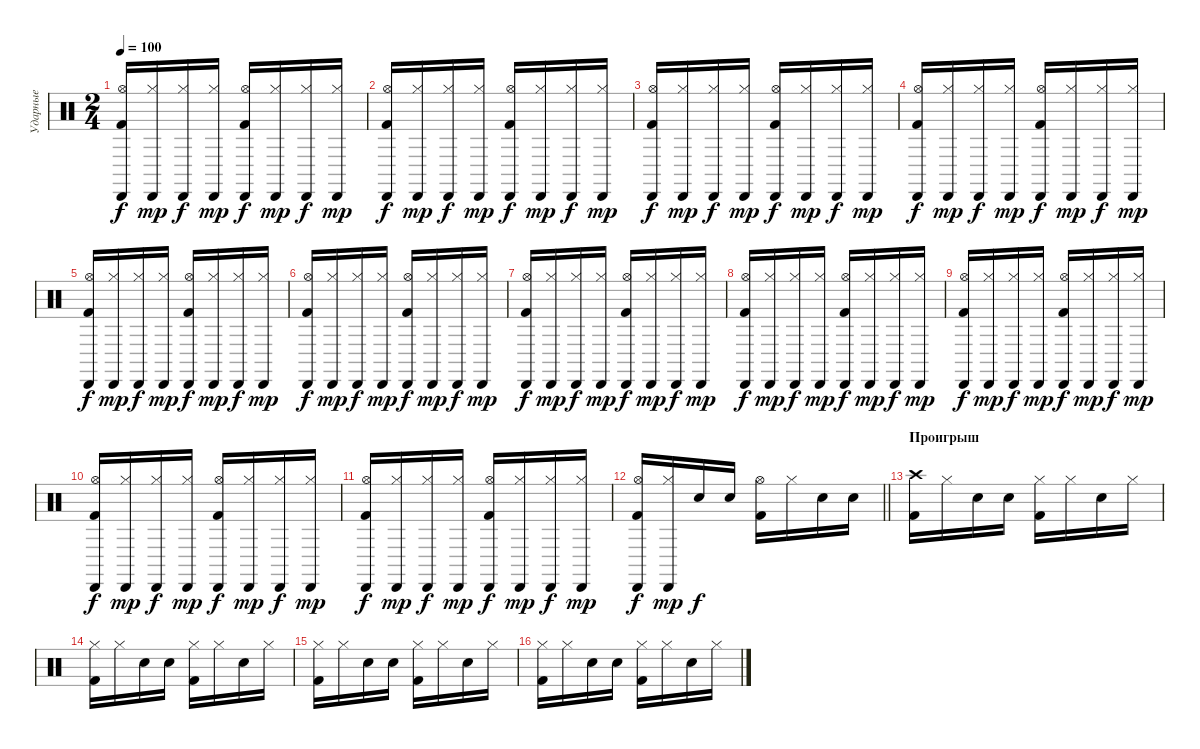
\track ("Ударные" "Ударные") {instrument percussion}
\staff {score}
\articulation defaults
\ts (2 4)
\tempo 100
\clef neutral
\ks c
("Kick (hit) 2" "Cabasa (hit)" "Hi-Hat (open)").16{dy f} ("Cabasa (hit)" "Hi-Hat (closed)").16{dy mp} ("Hi-Hat (closed)" "Cabasa (hit)").16{dy f} ("Cabasa (hit)" "Hi-Hat (closed)").16{dy mp} ("Hi-Hat (open)" "Cabasa (hit)" "Kick (hit) 2").16{dy f} ("Hi-Hat (closed)" "Cabasa (hit)").16{dy mp} ("Hi-Hat (closed)" "Cabasa (hit)").16{dy f} ("Hi-Hat (closed)" "Cabasa (hit)").16{dy mp} |
("Kick (hit) 2" "Cabasa (hit)" "Hi-Hat (open)").16{dy f} ("Cabasa (hit)" "Hi-Hat (closed)").16{dy mp} ("Hi-Hat (closed)" "Cabasa (hit)").16{dy f} ("Cabasa (hit)" "Hi-Hat (closed)").16{dy mp} ("Hi-Hat (open)" "Cabasa (hit)" "Kick (hit) 2").16{dy f} ("Hi-Hat (closed)" "Cabasa (hit)").16{dy mp} ("Hi-Hat (closed)" "Cabasa (hit)").16{dy f} ("Hi-Hat (closed)" "Cabasa (hit)").16{dy mp} |
("Kick (hit) 2" "Cabasa (hit)" "Hi-Hat (open)").16{dy f} ("Cabasa (hit)" "Hi-Hat (closed)").16{dy mp} ("Hi-Hat (closed)" "Cabasa (hit)").16{dy f} ("Cabasa (hit)" "Hi-Hat (closed)").16{dy mp} ("Hi-Hat (open)" "Cabasa (hit)" "Kick (hit) 2").16{dy f} ("Hi-Hat (closed)" "Cabasa (hit)").16{dy mp} ("Hi-Hat (closed)" "Cabasa (hit)").16{dy f} ("Hi-Hat (closed)" "Cabasa (hit)").16{dy mp} |
("Kick (hit) 2" "Cabasa (hit)" "Hi-Hat (open)").16{dy f} ("Cabasa (hit)" "Hi-Hat (closed)").16{dy mp} ("Hi-Hat (closed)" "Cabasa (hit)").16{dy f} ("Cabasa (hit)" "Hi-Hat (closed)").16{dy mp} ("Hi-Hat (open)" "Cabasa (hit)" "Kick (hit) 2").16{dy f} ("Hi-Hat (closed)" "Cabasa (hit)").16{dy mp} ("Hi-Hat (closed)" "Cabasa (hit)").16{dy f} ("Hi-Hat (closed)" "Cabasa (hit)").16{dy mp} |
("Kick (hit) 2" "Cabasa (hit)" "Hi-Hat (open)").16{dy f} ("Cabasa (hit)" "Hi-Hat (closed)").16{dy mp} ("Hi-Hat (closed)" "Cabasa (hit)").16{dy f} ("Cabasa (hit)" "Hi-Hat (closed)").16{dy mp} ("Hi-Hat (open)" "Cabasa (hit)" "Kick (hit) 2").16{dy f} ("Hi-Hat (closed)" "Cabasa (hit)").16{dy mp} ("Hi-Hat (closed)" "Cabasa (hit)").16{dy f} ("Hi-Hat (closed)" "Cabasa (hit)").16{dy mp} |
("Kick (hit) 2" "Cabasa (hit)" "Hi-Hat (open)").16{dy f} ("Cabasa (hit)" "Hi-Hat (closed)").16{dy mp} ("Hi-Hat (closed)" "Cabasa (hit)").16{dy f} ("Cabasa (hit)" "Hi-Hat (closed)").16{dy mp} ("Hi-Hat (open)" "Cabasa (hit)" "Kick (hit) 2").16{dy f} ("Hi-Hat (closed)" "Cabasa (hit)").16{dy mp} ("Hi-Hat (closed)" "Cabasa (hit)").16{dy f} ("Hi-Hat (closed)" "Cabasa (hit)").16{dy mp} |
("Kick (hit) 2" "Cabasa (hit)" "Hi-Hat (open)").16{dy f} ("Cabasa (hit)" "Hi-Hat (closed)").16{dy mp} ("Hi-Hat (closed)" "Cabasa (hit)").16{dy f} ("Cabasa (hit)" "Hi-Hat (closed)").16{dy mp} ("Hi-Hat (open)" "Cabasa (hit)" "Kick (hit) 2").16{dy f} ("Hi-Hat (closed)" "Cabasa (hit)").16{dy mp} ("Hi-Hat (closed)" "Cabasa (hit)").16{dy f} ("Hi-Hat (closed)" "Cabasa (hit)").16{dy mp} |
("Kick (hit) 2" "Cabasa (hit)" "Hi-Hat (open)").16{dy f} ("Cabasa (hit)" "Hi-Hat (closed)").16{dy mp} ("Hi-Hat (closed)" "Cabasa (hit)").16{dy f} ("Cabasa (hit)" "Hi-Hat (closed)").16{dy mp} ("Hi-Hat (open)" "Cabasa (hit)" "Kick (hit) 2").16{dy f} ("Hi-Hat (closed)" "Cabasa (hit)").16{dy mp} ("Hi-Hat (closed)" "Cabasa (hit)").16{dy f} ("Hi-Hat (closed)" "Cabasa (hit)").16{dy mp} |
("Kick (hit) 2" "Cabasa (hit)" "Hi-Hat (open)").16{dy f} ("Cabasa (hit)" "Hi-Hat (closed)").16{dy mp} ("Hi-Hat (closed)" "Cabasa (hit)").16{dy f} ("Cabasa (hit)" "Hi-Hat (closed)").16{dy mp} ("Hi-Hat (open)" "Cabasa (hit)" "Kick (hit) 2").16{dy f} ("Hi-Hat (closed)" "Cabasa (hit)").16{dy mp} ("Hi-Hat (closed)" "Cabasa (hit)").16{dy f} ("Hi-Hat (closed)" "Cabasa (hit)").16{dy mp} |
("Kick (hit) 2" "Cabasa (hit)" "Hi-Hat (open)").16{dy f} ("Cabasa (hit)" "Hi-Hat (closed)").16{dy mp} ("Hi-Hat (closed)" "Cabasa (hit)").16{dy f} ("Cabasa (hit)" "Hi-Hat (closed)").16{dy mp} ("Hi-Hat (open)" "Cabasa (hit)" "Kick (hit) 2").16{dy f} ("Hi-Hat (closed)" "Cabasa (hit)").16{dy mp} ("Hi-Hat (closed)" "Cabasa (hit)").16{dy f} ("Hi-Hat (closed)" "Cabasa (hit)").16{dy mp} |
("Kick (hit) 2" "Cabasa (hit)" "Hi-Hat (open)").16{dy f} ("Cabasa (hit)" "Hi-Hat (closed)").16{dy mp} ("Hi-Hat (closed)" "Cabasa (hit)").16{dy f} ("Cabasa (hit)" "Hi-Hat (closed)").16{dy mp} ("Hi-Hat (open)" "Cabasa (hit)" "Kick (hit) 2").16{dy f} ("Hi-Hat (closed)" "Cabasa (hit)").16{dy mp} ("Hi-Hat (closed)" "Cabasa (hit)").16{dy f} ("Hi-Hat (closed)" "Cabasa (hit)").16{dy mp} |
\barLineRight lightlight
("Kick (hit) 2" "Cabasa (hit)" "Hi-Hat (open)").16{dy f} ("Cabasa (hit)" "Hi-Hat (closed)").16{dy mp} "Electric Snare (hit)".16{dy f} "Electric Snare (hit)".16 ("Kick (hit) 2" "Hi-Hat (open)").16 "Hi-Hat (closed)".16 "Electric Snare (hit)".16 "Electric Snare (hit)".16 |
\section ("" "Проигрыш")
("Crash high (hit)" "Kick (hit) 2").16 "Hi-Hat (closed)".16 "Electric Snare (hit)".16 "Electric Snare (hit)".16 ("Kick (hit) 2" "Hi-Hat (closed)").16 "Hi-Hat (closed)".16 "Electric Snare (hit)".16 "Hi-Hat (closed)".16 |
("Hi-Hat (closed)" "Kick (hit) 2").16 "Hi-Hat (closed)".16 "Electric Snare (hit)".16 "Electric Snare (hit)".16 ("Kick (hit) 2" "Hi-Hat (closed)").16 "Hi-Hat (closed)".16 "Electric Snare (hit)".16 "Hi-Hat (closed)".16 |
("Hi-Hat (closed)" "Kick (hit) 2").16 "Hi-Hat (closed)".16 "Electric Snare (hit)".16 "Electric Snare (hit)".16 ("Kick (hit) 2" "Hi-Hat (closed)").16 "Hi-Hat (closed)".16 "Electric Snare (hit)".16 "Hi-Hat (closed)".16 |
("Hi-Hat (closed)" "Kick (hit) 2").16 "Hi-Hat (closed)".16 "Electric Snare (hit)".16 "Electric Snare (hit)".16 ("Kick (hit) 2" "Hi-Hat (closed)").16 "Hi-Hat (closed)".16 "Electric Snare (hit)".16 "Hi-Hat (closed)".16
